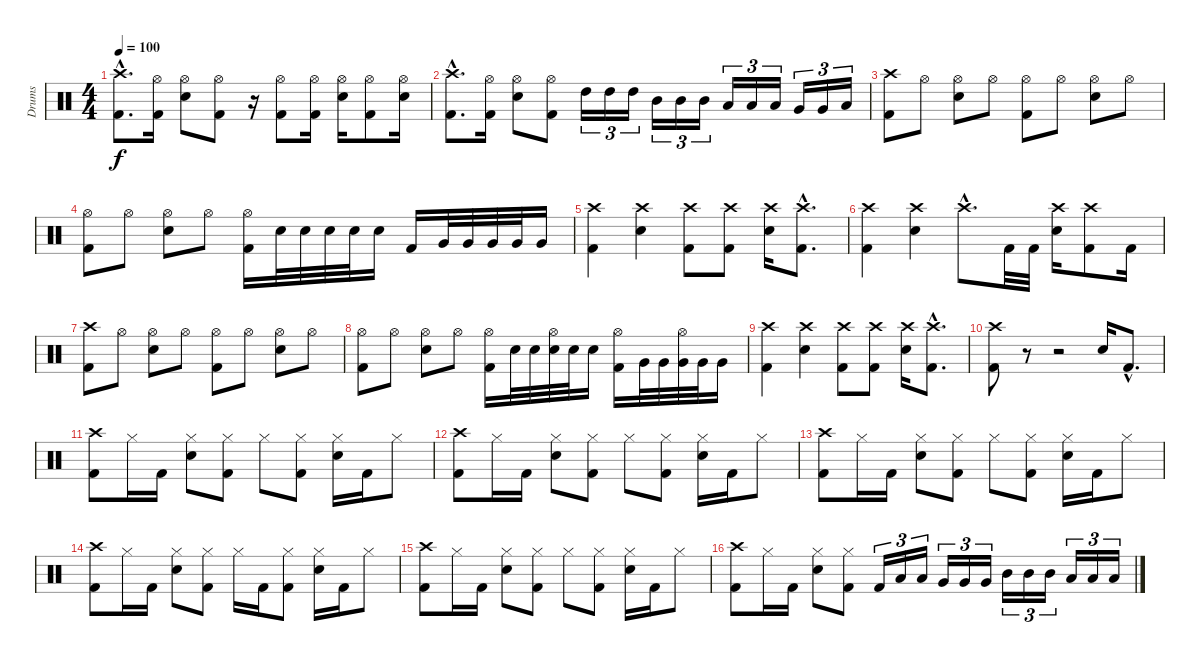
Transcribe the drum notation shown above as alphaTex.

\track ("Drums" "Drums") {instrument percussion}
\staff {score}
\articulation defaults
\ts (4 4)
\tempo 100
\clef neutral
\ks c
("Crash high (hit)"{hac} "Kick (hit) 2"{hac}).8{d dy f} ("Hi-Hat (open)" "Kick (hit) 2").16 ("Hi-Hat (open)" "Electric Snare (hit)").8 ("Hi-Hat (open)" "Kick (hit) 2").8 r.16 ("Hi-Hat (open)" "Kick (hit) 2").8 ("Hi-Hat (open)" "Kick (hit) 2").16 ("Hi-Hat (open)" "Electric Snare (hit)").16 ("Hi-Hat (open)" "Kick (hit) 2").8 ("Hi-Hat (open)" "Electric Snare (hit)").16 |
("Crash high (hit)"{hac} "Kick (hit) 2"{hac}).8{d} ("Hi-Hat (open)" "Kick (hit) 2").16 ("Hi-Hat (open)" "Electric Snare (hit)").8 ("Hi-Hat (open)" "Kick (hit) 2").8 "High Tom (hit)".16{tu (3 2)} "High Tom (hit)".16{tu (3 2)} "High Tom (hit)".16{tu (3 2)} "Mid Tom (hit)".16{tu (3 2)} "Mid Tom (hit)".16{tu (3 2)} "Mid Tom (hit)".16{tu (3 2)} "Low Tom (hit)".16{tu (3 2)} "Low Tom (hit)".16{tu (3 2)} "Low Tom (hit)".16{tu (3 2)} "Very Low Tom (hit)".16{tu (3 2)} "Very Low Tom (hit)".16{tu (3 2)} "Low Floor Tom (hit)".16{tu (3 2)} |
("Crash high (hit)" "Kick (hit) 2").8 "Hi-Hat (open)".8 ("Hi-Hat (open)" "Electric Snare (hit)").8 "Hi-Hat (open)".8 ("Hi-Hat (open)" "Kick (hit) 2").8 "Hi-Hat (open)".8 ("Hi-Hat (open)" "Electric Snare (hit)").8 "Hi-Hat (open)".8 |
("Hi-Hat (open)" "Kick (hit) 2").8 "Hi-Hat (open)".8 ("Hi-Hat (open)" "Electric Snare (hit)").8 "Hi-Hat (open)".8 ("Hi-Hat (open)" "Kick (hit) 2").16 "Electric Snare (hit)".32 "Electric Snare (hit)".32 "Electric Snare (hit)".32 "Electric Snare (hit)".32 "Electric Snare (hit)".16 "Kick (hit) 2".16 "Very Low Tom (hit)".32 "Very Low Tom (hit)".32 "Very Low Tom (hit)".32 "Very Low Tom (hit)".32 "Very Low Tom (hit)".16 |
("Crash high (hit)" "Kick (hit) 2").4 ("Crash high (hit)" "Electric Snare (hit)").4 ("Crash high (hit)" "Kick (hit) 2").8 ("Crash high (hit)" "Kick (hit) 2").8 ("Crash high (hit)" "Electric Snare (hit)").16 ("Crash high (hit)"{hac} "Kick (hit) 2"{hac}).8{d} |
("Crash high (hit)" "Kick (hit) 2").4 ("Crash high (hit)" "Electric Snare (hit)").4 "Crash high (hit)"{hac}.8{d} "Kick (hit) 2".32 "Kick (hit) 2".32 ("Crash high (hit)" "Electric Snare (hit)").16 ("Crash high (hit)" "Kick (hit) 2").8 "Kick (hit) 2".16 |
("Crash high (hit)" "Kick (hit) 2").8 "Hi-Hat (open)".8 ("Hi-Hat (open)" "Electric Snare (hit)").8 "Hi-Hat (open)".8 ("Hi-Hat (open)" "Kick (hit) 2").8 "Hi-Hat (open)".8 ("Hi-Hat (open)" "Electric Snare (hit)").8 "Hi-Hat (open)".8 |
("Hi-Hat (open)" "Kick (hit) 2").8 "Hi-Hat (open)".8 ("Hi-Hat (open)" "Electric Snare (hit)").8 "Hi-Hat (open)".8 ("Hi-Hat (open)" "Kick (hit) 2").16 "Electric Snare (hit)".32 "Electric Snare (hit)".32 ("Hi-Hat (open)" "Electric Snare (hit)").32 "Electric Snare (hit)".32 "Electric Snare (hit)".16 ("Hi-Hat (open)" "Kick (hit) 2").16 "Very Low Tom (hit)".32 "Very Low Tom (hit)".32 ("Hi-Hat (open)" "Very Low Tom (hit)").32 "Very Low Tom (hit)".32 "Very Low Tom (hit)".16 |
("Crash high (hit)" "Kick (hit) 2").4 ("Crash high (hit)" "Electric Snare (hit)").4 ("Crash high (hit)" "Kick (hit) 2").8 ("Crash high (hit)" "Kick (hit) 2").8 ("Crash high (hit)" "Electric Snare (hit)").16 ("Crash high (hit)"{hac} "Kick (hit) 2"{hac}).8{d} |
("Crash high (hit)" "Kick (hit) 2").8 r.8 r.2 "Electric Snare (hit)".16 "Kick (hit) 2"{hac}.8{d} |
("Crash high (hit)" "Kick (hit) 2").8 "Hi-Hat (closed)".16 "Kick (hit) 2".16 ("Hi-Hat (closed)" "Electric Snare (hit)").8 ("Hi-Hat (closed)" "Kick (hit) 2").8 "Hi-Hat (closed)".8 ("Hi-Hat (closed)" "Kick (hit) 2").8 ("Hi-Hat (closed)" "Electric Snare (hit)").16 "Kick (hit) 2".16 "Hi-Hat (closed)".8 |
("Crash high (hit)" "Kick (hit) 2").8 "Hi-Hat (closed)".16 "Kick (hit) 2".16 ("Hi-Hat (closed)" "Electric Snare (hit)").8 ("Hi-Hat (closed)" "Kick (hit) 2").8 "Hi-Hat (closed)".8 ("Hi-Hat (closed)" "Kick (hit) 2").8 ("Hi-Hat (closed)" "Electric Snare (hit)").16 "Kick (hit) 2".16 "Hi-Hat (closed)".8 |
("Crash high (hit)" "Kick (hit) 2").8 "Hi-Hat (closed)".16 "Kick (hit) 2".16 ("Hi-Hat (closed)" "Electric Snare (hit)").8 ("Hi-Hat (closed)" "Kick (hit) 2").8 "Hi-Hat (closed)".8 ("Hi-Hat (closed)" "Kick (hit) 2").8 ("Hi-Hat (closed)" "Electric Snare (hit)").16 "Kick (hit) 2".16 "Hi-Hat (closed)".8 |
("Crash high (hit)" "Kick (hit) 2").8 "Hi-Hat (closed)".16 "Kick (hit) 2".16 ("Hi-Hat (closed)" "Electric Snare (hit)").8 ("Hi-Hat (closed)" "Kick (hit) 2").8 "Hi-Hat (closed)".16 "Kick (hit) 2".16 ("Hi-Hat (closed)" "Kick (hit) 2").8 ("Hi-Hat (closed)" "Electric Snare (hit)").16 "Kick (hit) 2".16 "Hi-Hat (closed)".8 |
("Crash high (hit)" "Kick (hit) 2").8 "Hi-Hat (closed)".16 "Kick (hit) 2".16 ("Hi-Hat (closed)" "Electric Snare (hit)").8 ("Hi-Hat (closed)" "Kick (hit) 2").8 "Hi-Hat (closed)".8 ("Hi-Hat (closed)" "Kick (hit) 2").8 ("Hi-Hat (closed)" "Electric Snare (hit)").16 "Kick (hit) 2".16 "Hi-Hat (closed)".8 |
("Crash high (hit)" "Kick (hit) 2").8 "Hi-Hat (closed)".16 "Kick (hit) 2".16 ("Hi-Hat (closed)" "Electric Snare (hit)").8 ("Hi-Hat (closed)" "Kick (hit) 2").8 "Kick (hit) 2".16{tu (3 2)} "Low Tom (hit)".16{tu (3 2)} "Low Tom (hit)".16{tu (3 2)} "Very Low Tom (hit)".16{tu (3 2)} "Very Low Tom (hit)".16{tu (3 2)} "Very Low Tom (hit)".16{tu (3 2)} "Mid Tom (hit)".16{tu (3 2)} "Mid Tom (hit)".16{tu (3 2)} "Mid Tom (hit)".16{tu (3 2)} "Low Tom (hit)".16{tu (3 2)} "Low Tom (hit)".16{tu (3 2)} "Low Tom (hit)".16{tu (3 2)}
